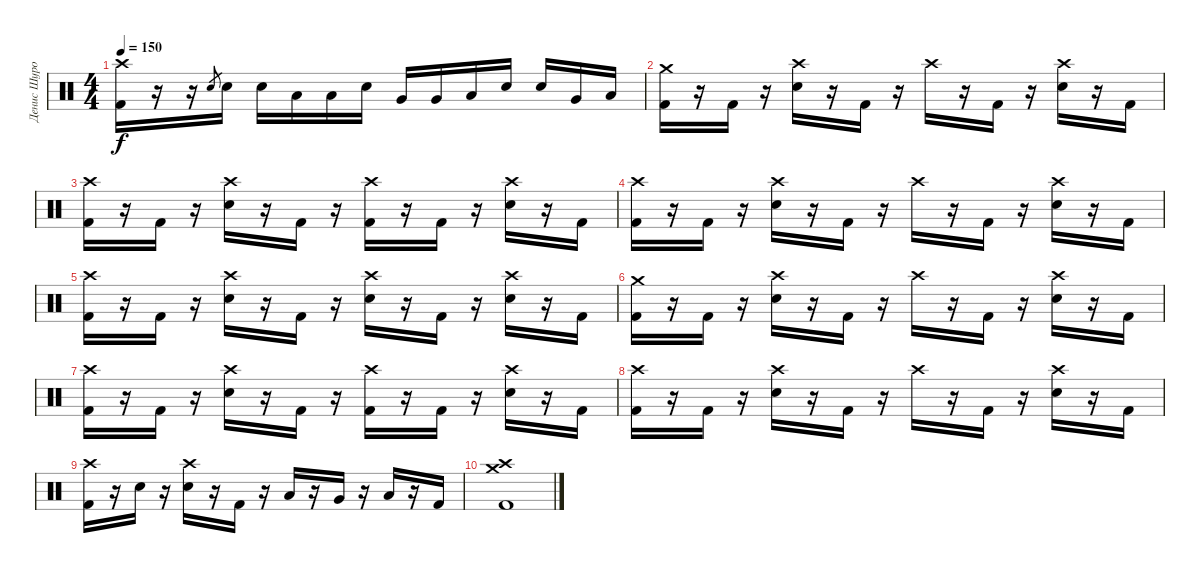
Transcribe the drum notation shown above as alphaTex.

\track ("Денис Шуров" "Денис Шуро") {instrument percussion}
\staff {score}
\articulation defaults
\ts (4 4)
\tempo 150
\clef neutral
\ks c
("Crash high (hit)" "Kick (hit) 2").16{dy f} r.16 r.16 "Electric Snare (hit)".8{gr} "Electric Snare (hit)".16 "Electric Snare (hit)".16 "Low Tom (hit)".16 "Low Tom (hit)".16 "Electric Snare (hit)".16 "Very Low Tom (hit)".16 "Very Low Tom (hit)".16 "Low Tom (hit)".16 "Electric Snare (hit)".16 "Electric Snare (hit)".16 "Very Low Tom (hit)".16 "Low Tom (hit)".16 |
("Crash medium (hit)" "Kick (hit) 2").16 r.16 "Kick (hit) 2".16 r.16 ("Crash high (hit)" "Electric Snare (hit)").16 r.16 "Kick (hit) 2".16 r.16 "Crash high (hit)".16 r.16 "Kick (hit) 2".16 r.16 ("Crash high (hit)" "Electric Snare (hit)").16 r.16 "Kick (hit) 2".16 |
("Crash high (hit)" "Kick (hit) 2").16 r.16 "Kick (hit) 2".16 r.16 ("Crash high (hit)" "Electric Snare (hit)").16 r.16 "Kick (hit) 2".16 r.16 ("Crash high (hit)" "Kick (hit) 2").16 r.16 "Kick (hit) 2".16 r.16 ("Crash high (hit)" "Electric Snare (hit)").16 r.16 "Kick (hit) 2".16 |
("Crash high (hit)" "Kick (hit) 2").16 r.16 "Kick (hit) 2".16 r.16 ("Crash high (hit)" "Electric Snare (hit)").16 r.16 "Kick (hit) 2".16 r.16 "Crash high (hit)".16 r.16 "Kick (hit) 2".16 r.16 ("Crash high (hit)" "Electric Snare (hit)").16 r.16 "Kick (hit) 2".16 |
("Crash high (hit)" "Kick (hit) 2").16 r.16 "Kick (hit) 2".16 r.16 ("Crash high (hit)" "Electric Snare (hit)").16 r.16 "Kick (hit) 2".16 r.16 ("Crash high (hit)" "Electric Snare (hit)").16 r.16 "Kick (hit) 2".16 r.16 ("Crash high (hit)" "Electric Snare (hit)").16 r.16 "Kick (hit) 2".16 |
("Crash medium (hit)" "Kick (hit) 2").16 r.16 "Kick (hit) 2".16 r.16 ("Crash high (hit)" "Electric Snare (hit)").16 r.16 "Kick (hit) 2".16 r.16 "Crash high (hit)".16 r.16 "Kick (hit) 2".16 r.16 ("Crash high (hit)" "Electric Snare (hit)").16 r.16 "Kick (hit) 2".16 |
("Crash high (hit)" "Kick (hit) 2").16 r.16 "Kick (hit) 2".16 r.16 ("Crash high (hit)" "Electric Snare (hit)").16 r.16 "Kick (hit) 2".16 r.16 ("Crash high (hit)" "Kick (hit) 2").16 r.16 "Kick (hit) 2".16 r.16 ("Crash high (hit)" "Electric Snare (hit)").16 r.16 "Kick (hit) 2".16 |
("Crash high (hit)" "Kick (hit) 2").16 r.16 "Kick (hit) 2".16 r.16 ("Crash high (hit)" "Electric Snare (hit)").16 r.16 "Kick (hit) 2".16 r.16 "Crash high (hit)".16 r.16 "Kick (hit) 2".16 r.16 ("Crash high (hit)" "Electric Snare (hit)").16 r.16 "Kick (hit) 2".16 |
("Crash high (hit)" "Kick (hit) 2").16 r.16 "Electric Snare (hit)".16 r.16 ("Crash high (hit)" "Electric Snare (hit)").16 r.16 "Kick (hit) 2".16 r.16 "Low Tom (hit)".16 r.16 "Very Low Tom (hit)".16 r.16 "Low Floor Tom (hit)".16 r.16 "Kick (hit) 2".16 |
("Crash high (hit)" "Crash medium (hit)" "Kick (hit) 2").1
